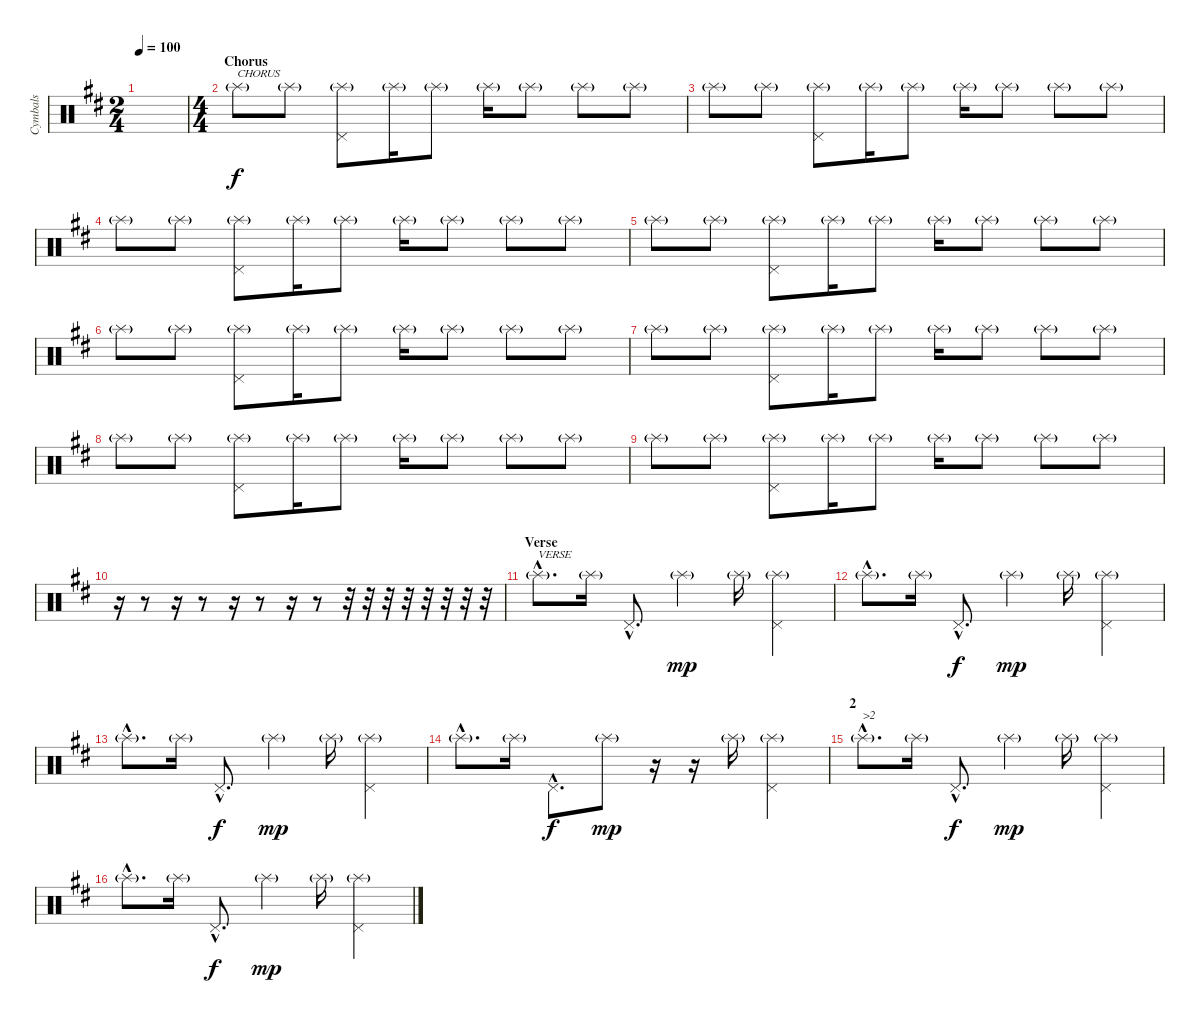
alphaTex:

\track ("Cymbals" "Cymbals") {instrument percussion}
\staff {score}
\articulation defaults
\ts (2 4)
\tempo 100
\clef neutral
\ks d
|
\ts (4 4)
\section ("" "Chorus")
"Splash (hit)"{g}.8{txt "CHORUS"} "Splash (hit)"{g}.8 ("Splash (hit)"{g} "Pedal Hi-Hat (hit)").8 "Splash (hit)"{g}.16 "Splash (hit)"{g}.8 "Splash (hit)"{g}.16 "Splash (hit)"{g}.8 "Splash (hit)"{g}.8 "Splash (hit)"{g}.8 |
"Splash (hit)"{g}.8 "Splash (hit)"{g}.8 ("Splash (hit)"{g} "Pedal Hi-Hat (hit)").8 "Splash (hit)"{g}.16 "Splash (hit)"{g}.8 "Splash (hit)"{g}.16 "Splash (hit)"{g}.8 "Splash (hit)"{g}.8 "Splash (hit)"{g}.8 |
"Splash (hit)"{g}.8 "Splash (hit)"{g}.8 ("Splash (hit)"{g} "Pedal Hi-Hat (hit)").8 "Splash (hit)"{g}.16 "Splash (hit)"{g}.8 "Splash (hit)"{g}.16 "Splash (hit)"{g}.8 "Splash (hit)"{g}.8 "Splash (hit)"{g}.8 |
"Splash (hit)"{g}.8 "Splash (hit)"{g}.8 ("Splash (hit)"{g} "Pedal Hi-Hat (hit)").8 "Splash (hit)"{g}.16 "Splash (hit)"{g}.8 "Splash (hit)"{g}.16 "Splash (hit)"{g}.8 "Splash (hit)"{g}.8 "Splash (hit)"{g}.8 |
"Splash (hit)"{g}.8 "Splash (hit)"{g}.8 ("Splash (hit)"{g} "Pedal Hi-Hat (hit)").8 "Splash (hit)"{g}.16 "Splash (hit)"{g}.8 "Splash (hit)"{g}.16 "Splash (hit)"{g}.8 "Splash (hit)"{g}.8 "Splash (hit)"{g}.8 |
"Splash (hit)"{g}.8 "Splash (hit)"{g}.8 ("Splash (hit)"{g} "Pedal Hi-Hat (hit)").8 "Splash (hit)"{g}.16 "Splash (hit)"{g}.8 "Splash (hit)"{g}.16 "Splash (hit)"{g}.8 "Splash (hit)"{g}.8 "Splash (hit)"{g}.8 |
"Splash (hit)"{g}.8 "Splash (hit)"{g}.8 ("Splash (hit)"{g} "Pedal Hi-Hat (hit)").8 "Splash (hit)"{g}.16 "Splash (hit)"{g}.8 "Splash (hit)"{g}.16 "Splash (hit)"{g}.8 "Splash (hit)"{g}.8 "Splash (hit)"{g}.8 |
"Splash (hit)"{g}.8 "Splash (hit)"{g}.8 ("Splash (hit)"{g} "Pedal Hi-Hat (hit)").8 "Splash (hit)"{g}.16 "Splash (hit)"{g}.8 "Splash (hit)"{g}.16 "Splash (hit)"{g}.8 "Splash (hit)"{g}.8 "Splash (hit)"{g}.8 |
r.16 r.8 r.16 r.8 r.16 r.8 r.16 r.8 r.32 r.32 r.32 r.32 r.32 r.32 r.32 r.32 |
\section ("" "Verse")
"Splash (hit)"{g hac}.8{d txt "VERSE"} "Splash (hit)"{g}.16 "Pedal Hi-Hat (hit)"{hac}.8{d dy f} "Splash (hit)"{g}.4{dy mp} "Splash (hit)"{g}.16 ("Pedal Hi-Hat (hit)" "Splash (hit)"{g}).4 |
"Splash (hit)"{g hac}.8{d} "Splash (hit)"{g}.16 "Pedal Hi-Hat (hit)"{hac}.8{d dy f} "Splash (hit)"{g}.4{dy mp} "Splash (hit)"{g}.16 ("Pedal Hi-Hat (hit)" "Splash (hit)"{g}).4 |
"Splash (hit)"{g hac}.8{d} "Splash (hit)"{g}.16 "Pedal Hi-Hat (hit)"{hac}.8{d dy f} "Splash (hit)"{g}.4{dy mp} "Splash (hit)"{g}.16 ("Pedal Hi-Hat (hit)" "Splash (hit)"{g}).4 |
"Splash (hit)"{g hac}.8{d} "Splash (hit)"{g}.16 "Pedal Hi-Hat (hit)"{hac}.8{d dy f} "Splash (hit)"{g}.8{dy mp} r.16 r.16 "Splash (hit)"{g}.16 ("Pedal Hi-Hat (hit)" "Splash (hit)"{g}).4 |
\section ("" "2")
"Splash (hit)"{g hac}.8{d txt ">2"} "Splash (hit)"{g}.16 "Pedal Hi-Hat (hit)"{hac}.8{d dy f} "Splash (hit)"{g}.4{dy mp} "Splash (hit)"{g}.16 ("Pedal Hi-Hat (hit)" "Splash (hit)"{g}).4 |
"Splash (hit)"{g hac}.8{d} "Splash (hit)"{g}.16 "Pedal Hi-Hat (hit)"{hac}.8{d dy f} "Splash (hit)"{g}.4{dy mp} "Splash (hit)"{g}.16 ("Pedal Hi-Hat (hit)" "Splash (hit)"{g}).4
